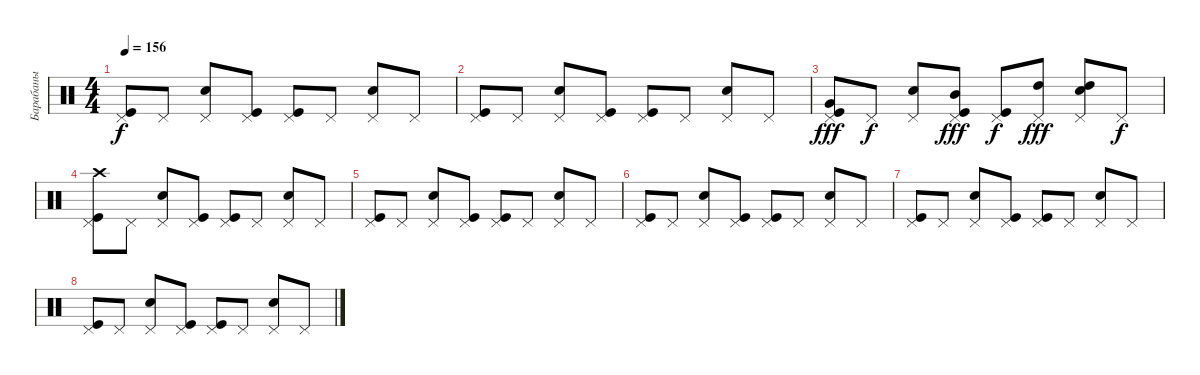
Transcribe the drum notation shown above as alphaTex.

\track ("Барабаны" "Барабаны") {instrument percussion}
\staff {score}
\articulation defaults
\ts (4 4)
\tempo 156
\clef neutral
\ks c
("Kick (hit)" "Pedal Hi-Hat (hit)").8{dy f} "Pedal Hi-Hat (hit)".8 ("Snare (hit) 2" "Pedal Hi-Hat (hit)").8 ("Kick (hit)" "Pedal Hi-Hat (hit)").8 ("Kick (hit)" "Pedal Hi-Hat (hit)").8 "Pedal Hi-Hat (hit)".8 ("Snare (hit) 2" "Pedal Hi-Hat (hit)").8 "Pedal Hi-Hat (hit)".8 |
("Kick (hit)" "Pedal Hi-Hat (hit)").8 "Pedal Hi-Hat (hit)".8 ("Snare (hit) 2" "Pedal Hi-Hat (hit)").8 ("Kick (hit)" "Pedal Hi-Hat (hit)").8 ("Kick (hit)" "Pedal Hi-Hat (hit)").8 "Pedal Hi-Hat (hit)".8 ("Snare (hit) 2" "Pedal Hi-Hat (hit)").8 "Pedal Hi-Hat (hit)".8 |
("Kick (hit)" "Pedal Hi-Hat (hit)" "Very Low Tom (hit)").8{dy fff} "Pedal Hi-Hat (hit)".8{dy f} ("Snare (hit) 2" "Pedal Hi-Hat (hit)").8 ("Kick (hit)" "Pedal Hi-Hat (hit)" "Mid Tom (hit)").8{dy fff} ("Kick (hit)" "Pedal Hi-Hat (hit)").8{dy f} ("Pedal Hi-Hat (hit)" "High Tom (hit)").8{dy fff} ("Snare (hit) 2" "Pedal Hi-Hat (hit)" "High Tom (hit)").8 "Pedal Hi-Hat (hit)".8{dy f} |
("Kick (hit)" "Pedal Hi-Hat (hit)" "Crash high (hit)").8{volume 2} "Pedal Hi-Hat (hit)".8 ("Snare (hit) 2" "Pedal Hi-Hat (hit)").8 ("Kick (hit)" "Pedal Hi-Hat (hit)").8 ("Kick (hit)" "Pedal Hi-Hat (hit)").8 "Pedal Hi-Hat (hit)".8 ("Snare (hit) 2" "Pedal Hi-Hat (hit)").8 "Pedal Hi-Hat (hit)".8 |
("Kick (hit)" "Pedal Hi-Hat (hit)").8 "Pedal Hi-Hat (hit)".8 ("Snare (hit) 2" "Pedal Hi-Hat (hit)").8 ("Kick (hit)" "Pedal Hi-Hat (hit)").8 ("Kick (hit)" "Pedal Hi-Hat (hit)").8 "Pedal Hi-Hat (hit)".8 ("Snare (hit) 2" "Pedal Hi-Hat (hit)").8 "Pedal Hi-Hat (hit)".8 |
("Kick (hit)" "Pedal Hi-Hat (hit)").8 "Pedal Hi-Hat (hit)".8 ("Snare (hit) 2" "Pedal Hi-Hat (hit)").8 ("Kick (hit)" "Pedal Hi-Hat (hit)").8 ("Kick (hit)" "Pedal Hi-Hat (hit)").8 "Pedal Hi-Hat (hit)".8 ("Snare (hit) 2" "Pedal Hi-Hat (hit)").8 "Pedal Hi-Hat (hit)".8 |
("Kick (hit)" "Pedal Hi-Hat (hit)").8 "Pedal Hi-Hat (hit)".8 ("Snare (hit) 2" "Pedal Hi-Hat (hit)").8 ("Kick (hit)" "Pedal Hi-Hat (hit)").8 ("Kick (hit)" "Pedal Hi-Hat (hit)").8 "Pedal Hi-Hat (hit)".8 ("Snare (hit) 2" "Pedal Hi-Hat (hit)").8 "Pedal Hi-Hat (hit)".8 |
("Kick (hit)" "Pedal Hi-Hat (hit)").8{volume 0} "Pedal Hi-Hat (hit)".8 ("Snare (hit) 2" "Pedal Hi-Hat (hit)").8 ("Kick (hit)" "Pedal Hi-Hat (hit)").8 ("Kick (hit)" "Pedal Hi-Hat (hit)").8 "Pedal Hi-Hat (hit)".8 ("Snare (hit) 2" "Pedal Hi-Hat (hit)").8 "Pedal Hi-Hat (hit)".8
